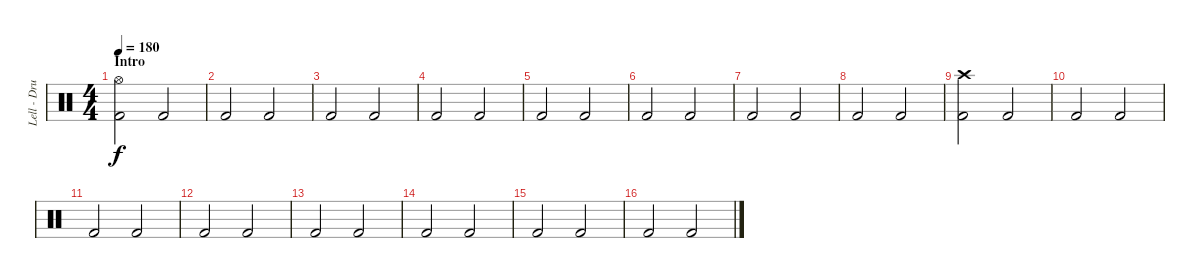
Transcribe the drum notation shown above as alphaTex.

\track ("Lell - Drums" "Lell - Dru") {instrument percussion}
\staff {score}
\articulation defaults
\ts (4 4)
\section ("" "Intro")
\tempo 180
\clef neutral
\ks c
("Hi-Hat (open)" "Kick (hit) 2").2{dy f} "Kick (hit) 2".2 |
"Kick (hit) 2".2 "Kick (hit) 2".2 |
"Kick (hit) 2".2 "Kick (hit) 2".2 |
"Kick (hit) 2".2 "Kick (hit) 2".2 |
"Kick (hit) 2".2 "Kick (hit) 2".2 |
"Kick (hit) 2".2 "Kick (hit) 2".2 |
"Kick (hit) 2".2 "Kick (hit) 2".2 |
"Kick (hit) 2".2 "Kick (hit) 2".2 |
("Crash high (hit)" "Kick (hit) 2").2 "Kick (hit) 2".2 |
"Kick (hit) 2".2 "Kick (hit) 2".2 |
"Kick (hit) 2".2 "Kick (hit) 2".2 |
"Kick (hit) 2".2 "Kick (hit) 2".2 |
"Kick (hit) 2".2 "Kick (hit) 2".2 |
"Kick (hit) 2".2 "Kick (hit) 2".2 |
"Kick (hit) 2".2 "Kick (hit) 2".2 |
"Kick (hit) 2".2 "Kick (hit) 2".2
